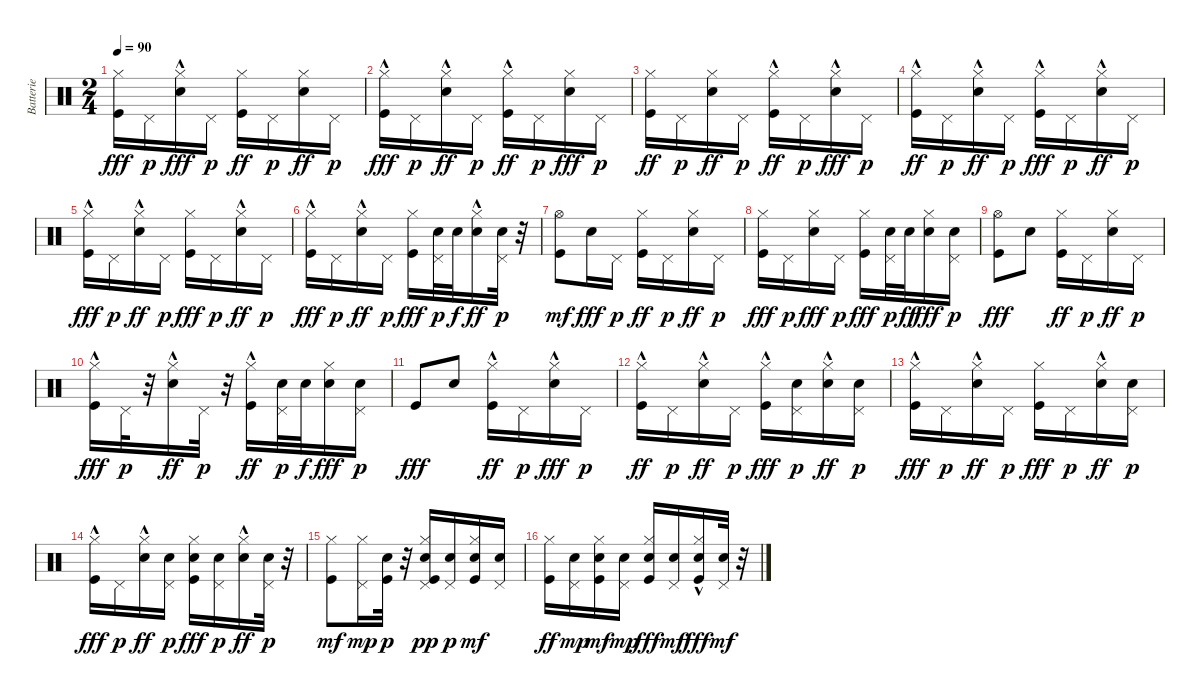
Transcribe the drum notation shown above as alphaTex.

\track ("Batterie" "Batterie") {instrument percussion}
\staff {score}
\articulation defaults
\ts (2 4)
\tempo 90
\clef neutral
\ks c
("Kick (hit)" "Hi-Hat (closed)").16{dy fff} "Pedal Hi-Hat (hit)".16{dy p} ("Snare (hit) 2" "Hi-Hat (closed)"{hac}).16{dy fff} "Pedal Hi-Hat (hit)".16{dy p} ("Kick (hit)" "Hi-Hat (closed)").16{dy ff} "Pedal Hi-Hat (hit)".16{dy p} ("Snare (hit) 2" "Hi-Hat (closed)").16{dy ff} "Pedal Hi-Hat (hit)".16{dy p} |
("Kick (hit)" "Hi-Hat (closed)"{hac}).16{dy fff} "Pedal Hi-Hat (hit)".16{dy p} ("Snare (hit) 2" "Hi-Hat (closed)"{hac}).16{dy ff} "Pedal Hi-Hat (hit)".16{dy p} ("Kick (hit)" "Hi-Hat (closed)"{hac}).16{dy ff} "Pedal Hi-Hat (hit)".16{dy p} ("Snare (hit) 2" "Hi-Hat (closed)").16{dy fff} "Pedal Hi-Hat (hit)".16{dy p} |
("Kick (hit)" "Hi-Hat (closed)").16{dy ff} "Pedal Hi-Hat (hit)".16{dy p} ("Snare (hit) 2" "Hi-Hat (closed)").16{dy ff} "Pedal Hi-Hat (hit)".16{dy p} ("Kick (hit)" "Hi-Hat (closed)"{hac}).16{dy ff} "Pedal Hi-Hat (hit)".16{dy p} ("Snare (hit) 2" "Hi-Hat (closed)"{hac}).16{dy fff} "Pedal Hi-Hat (hit)".16{dy p} |
("Kick (hit)" "Hi-Hat (closed)"{hac}).16{dy ff} "Pedal Hi-Hat (hit)".16{dy p} ("Snare (hit) 2" "Hi-Hat (closed)"{hac}).16{dy ff} "Pedal Hi-Hat (hit)".16{dy p} ("Kick (hit)" "Hi-Hat (closed)"{hac}).16{dy fff} "Pedal Hi-Hat (hit)".16{dy p} ("Snare (hit) 2" "Hi-Hat (closed)"{hac}).16{dy ff} "Pedal Hi-Hat (hit)".16{dy p} |
("Kick (hit)" "Hi-Hat (closed)"{hac}).16{dy fff} "Pedal Hi-Hat (hit)".16{dy p} ("Snare (hit) 2" "Hi-Hat (closed)"{hac}).16{dy ff} "Pedal Hi-Hat (hit)".16{dy p} ("Kick (hit)" "Hi-Hat (closed)").16{dy fff} "Pedal Hi-Hat (hit)".16{dy p} ("Snare (hit) 2" "Hi-Hat (closed)"{hac}).16{dy ff} "Pedal Hi-Hat (hit)".16{dy p} |
("Kick (hit)" "Hi-Hat (closed)"{hac}).16{dy fff} "Pedal Hi-Hat (hit)".16{dy p} ("Snare (hit) 2" "Hi-Hat (closed)"{hac}).16{dy ff} "Pedal Hi-Hat (hit)".16{dy p} ("Kick (hit)" "Hi-Hat (closed)").16{dy fff} ("Snare (hit) 2" "Pedal Hi-Hat (hit)").32{dy p} "Snare (hit) 2".32{dy f} ("Snare (hit) 2" "Hi-Hat (closed)"{hac}).16{dy ff} ("Snare (hit) 2" "Pedal Hi-Hat (hit)").32{dy p} r.32 |
("Kick (hit)" "Hi-Hat (open)").8{dy mf} "Snare (hit) 2".16{dy fff} "Pedal Hi-Hat (hit)".16{dy p} ("Kick (hit)" "Hi-Hat (closed)").16{dy ff} "Pedal Hi-Hat (hit)".16{dy p} ("Snare (hit) 2" "Hi-Hat (closed)").16{dy ff} "Pedal Hi-Hat (hit)".16{dy p} |
("Kick (hit)" "Hi-Hat (closed)").16{dy fff} "Pedal Hi-Hat (hit)".16{dy p} ("Snare (hit) 2" "Hi-Hat (closed)").16{dy fff} "Pedal Hi-Hat (hit)".16{dy p} ("Kick (hit)" "Hi-Hat (closed)").16{dy fff} ("Snare (hit) 2" "Pedal Hi-Hat (hit)").32{dy p} "Snare (hit) 2".32{dy ff} ("Snare (hit) 2" "Hi-Hat (closed)").16{dy fff} ("Snare (hit) 2" "Pedal Hi-Hat (hit)").16{dy p} |
("Kick (hit)" "Hi-Hat (open)").8{dy fff} "Snare (hit) 2".8 ("Kick (hit)" "Hi-Hat (closed)").16{dy ff} "Pedal Hi-Hat (hit)".16{dy p} ("Snare (hit) 2" "Hi-Hat (closed)").16{dy ff} "Pedal Hi-Hat (hit)".16{dy p} |
("Kick (hit)" "Hi-Hat (closed)"{hac}).16{dy fff} "Pedal Hi-Hat (hit)".32{dy p} r.32 ("Snare (hit) 2" "Hi-Hat (closed)"{hac}).16{dy ff} "Pedal Hi-Hat (hit)".32{dy p} r.32 ("Kick (hit)" "Hi-Hat (closed)"{hac}).16{dy ff} ("Snare (hit) 2" "Pedal Hi-Hat (hit)").32{dy p} "Snare (hit) 2".32{dy f} ("Snare (hit) 2" "Hi-Hat (closed)").16{dy fff} ("Snare (hit) 2" "Pedal Hi-Hat (hit)").16{dy p} |
"Kick (hit)".8{dy fff} "Snare (hit) 2".8 ("Kick (hit)" "Hi-Hat (closed)"{hac}).16{dy ff} "Pedal Hi-Hat (hit)".16{dy p} ("Snare (hit) 2" "Hi-Hat (closed)"{hac}).16{dy fff} "Pedal Hi-Hat (hit)".16{dy p} |
("Kick (hit)" "Hi-Hat (closed)"{hac}).16{dy ff} "Pedal Hi-Hat (hit)".16{dy p} ("Snare (hit) 2" "Hi-Hat (closed)"{hac}).16{dy ff} "Pedal Hi-Hat (hit)".16{dy p} ("Kick (hit)" "Hi-Hat (closed)"{hac}).16{dy fff} ("Snare (hit) 2" "Pedal Hi-Hat (hit)").16{dy p} ("Snare (hit) 2" "Hi-Hat (closed)"{hac}).16{dy ff} ("Snare (hit) 2" "Pedal Hi-Hat (hit)").16{dy p} |
("Kick (hit)" "Hi-Hat (closed)"{hac}).16{dy fff} "Pedal Hi-Hat (hit)".16{dy p} ("Snare (hit) 2" "Hi-Hat (closed)"{hac}).16{dy ff} "Pedal Hi-Hat (hit)".16{dy p} ("Kick (hit)" "Hi-Hat (closed)").16{dy fff} "Pedal Hi-Hat (hit)".16{dy p} ("Snare (hit) 2" "Hi-Hat (closed)"{hac}).16{dy ff} ("Snare (hit) 2" "Pedal Hi-Hat (hit)").16{dy p} |
("Kick (hit)" "Hi-Hat (closed)"{hac}).16{dy fff} "Pedal Hi-Hat (hit)".16{dy p} ("Snare (hit) 2" "Hi-Hat (closed)"{hac}).16{dy ff} ("Snare (hit) 2" "Pedal Hi-Hat (hit)").16{dy p} ("Kick (hit)" "Snare (hit) 2" "Hi-Hat (closed)").16{dy fff} ("Snare (hit) 2" "Pedal Hi-Hat (hit)").16{dy p} ("Snare (hit) 2" "Hi-Hat (closed)"{hac}).16{dy ff} ("Snare (hit) 2" "Pedal Hi-Hat (hit)").32{dy p} r.32 |
("Kick (hit)" "Hi-Hat (closed)").8{dy mf} ("Hi-Hat (closed)" "Pedal Hi-Hat (hit)").16{dy mp} ("Kick (hit)" "Snare (hit) 2").32{dy p} r.32 ("Kick (hit)" "Snare (hit) 2" "Hi-Hat (closed)" "Pedal Hi-Hat (hit)").16{dy pp} ("Snare (hit) 2" "Pedal Hi-Hat (hit)").16{dy p} ("Kick (hit)" "Snare (hit) 2" "Hi-Hat (closed)").16{dy mf} ("Snare (hit) 2" "Pedal Hi-Hat (hit)").16 |
("Kick (hit)" "Hi-Hat (closed)").16{dy ff} ("Snare (hit) 2" "Pedal Hi-Hat (hit)").16{dy mp} ("Kick (hit)" "Snare (hit) 2" "Hi-Hat (closed)").16{dy mf} ("Snare (hit) 2" "Pedal Hi-Hat (hit)").16{dy mp} ("Kick (hit)" "Snare (hit) 2" "Hi-Hat (closed)").16{dy fff} ("Snare (hit) 2" "Pedal Hi-Hat (hit)").16{dy mf} ("Kick (hit)"{hac} "Snare (hit) 2" "Hi-Hat (closed)").16{dy fff} ("Snare (hit) 2" "Pedal Hi-Hat (hit)").32{dy mf} r.32
